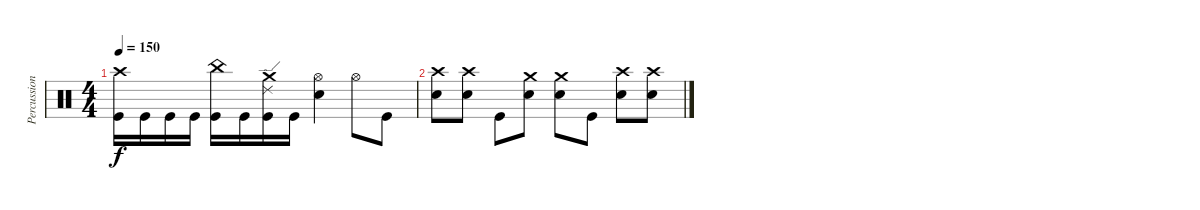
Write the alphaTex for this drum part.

\track ("Percussion" "Percussion") {instrument percussion}
\staff {score}
\articulation defaults
\ts (4 4)
\tempo 150
\clef neutral
\ks c
("Crash high (hit)" "Kick (hit)").16{dy f} "Kick (hit)".16 "Kick (hit)".16 "Kick (hit)".16 ("China (hit)" "Kick (hit)").16 "Kick (hit)".16 ("Crash medium (hit)" "Ride (edge) 2" "Kick (hit)").16 "Kick (hit)".16 ("Hi-Hat (open)" "Snare (hit) 2").4 "Hi-Hat (open)".8 "Kick (hit)".8 |
("Crash high (hit)" "Snare (hit) 2").8 ("Crash high (hit)" "Snare (hit) 2").8 "Kick (hit)".8 ("Crash medium (hit)" "Snare (hit) 2").8 ("Crash medium (hit)" "Snare (hit) 2").8 "Kick (hit)".8 ("Crash high (hit)" "Snare (hit) 2").8 ("Crash high (hit)" "Snare (hit) 2").8
